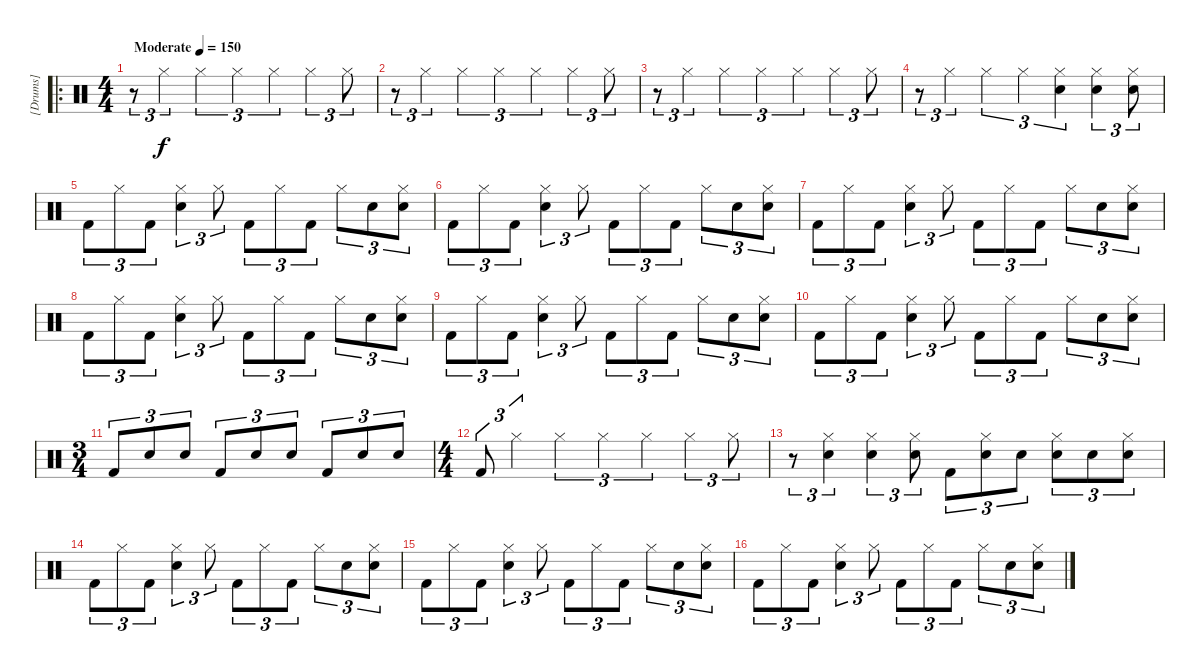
\track ("[Drums]" "[Drums]") {instrument percussion}
\staff {score}
\articulation defaults
\ro
\ts (4 4)
\tempo (150 "Moderate")
\clef neutral
\ks c
r.8{tu (3 2) dy f} "Hi-Hat (closed)".4{tu (3 2)} "Hi-Hat (closed)".4{tu (3 2)} "Hi-Hat (closed)".4{tu (3 2)} "Hi-Hat (closed)".4{tu (3 2)} "Hi-Hat (closed)".4{tu (3 2)} "Hi-Hat (closed)".8{tu (3 2)} |
r.8{tu (3 2)} "Hi-Hat (closed)".4{tu (3 2)} "Hi-Hat (closed)".4{tu (3 2)} "Hi-Hat (closed)".4{tu (3 2)} "Hi-Hat (closed)".4{tu (3 2)} "Hi-Hat (closed)".4{tu (3 2)} "Hi-Hat (closed)".8{tu (3 2)} |
r.8{tu (3 2)} "Hi-Hat (closed)".4{tu (3 2)} "Hi-Hat (closed)".4{tu (3 2)} "Hi-Hat (closed)".4{tu (3 2)} "Hi-Hat (closed)".4{tu (3 2)} "Hi-Hat (closed)".4{tu (3 2)} "Hi-Hat (closed)".8{tu (3 2)} |
r.8{tu (3 2)} "Hi-Hat (closed)".4{tu (3 2)} "Hi-Hat (closed)".4{tu (3 2)} "Hi-Hat (closed)".4{tu (3 2)} ("Hi-Hat (closed)" "Snare (hit) 2").4{tu (3 2)} ("Hi-Hat (closed)" "Snare (hit) 2").4{tu (3 2)} ("Hi-Hat (closed)" "Snare (hit) 2").8{tu (3 2)} |
"Kick (hit) 2".8{tu (3 2)} "Hi-Hat (closed)".8{tu (3 2)} "Kick (hit) 2".8{tu (3 2)} ("Hi-Hat (closed)" "Electric Snare (hit)").4{tu (3 2)} "Hi-Hat (closed)".8{tu (3 2)} "Kick (hit) 2".8{tu (3 2)} "Hi-Hat (closed)".8{tu (3 2)} "Kick (hit) 2".8{tu (3 2)} "Hi-Hat (closed)".8{tu (3 2)} "Electric Snare (hit)".8{tu (3 2)} ("Hi-Hat (closed)" "Electric Snare (hit)").8{tu (3 2)} |
"Kick (hit) 2".8{tu (3 2)} "Hi-Hat (closed)".8{tu (3 2)} "Kick (hit) 2".8{tu (3 2)} ("Hi-Hat (closed)" "Electric Snare (hit)").4{tu (3 2)} "Hi-Hat (closed)".8{tu (3 2)} "Kick (hit) 2".8{tu (3 2)} "Hi-Hat (closed)".8{tu (3 2)} "Kick (hit) 2".8{tu (3 2)} "Hi-Hat (closed)".8{tu (3 2)} "Electric Snare (hit)".8{tu (3 2)} ("Hi-Hat (closed)" "Electric Snare (hit)").8{tu (3 2)} |
"Kick (hit) 2".8{tu (3 2)} "Hi-Hat (closed)".8{tu (3 2)} "Kick (hit) 2".8{tu (3 2)} ("Hi-Hat (closed)" "Electric Snare (hit)").4{tu (3 2)} "Hi-Hat (closed)".8{tu (3 2)} "Kick (hit) 2".8{tu (3 2)} "Hi-Hat (closed)".8{tu (3 2)} "Kick (hit) 2".8{tu (3 2)} "Hi-Hat (closed)".8{tu (3 2)} "Electric Snare (hit)".8{tu (3 2)} ("Hi-Hat (closed)" "Electric Snare (hit)").8{tu (3 2)} |
"Kick (hit) 2".8{tu (3 2)} "Hi-Hat (closed)".8{tu (3 2)} "Kick (hit) 2".8{tu (3 2)} ("Hi-Hat (closed)" "Electric Snare (hit)").4{tu (3 2)} "Hi-Hat (closed)".8{tu (3 2)} "Kick (hit) 2".8{tu (3 2)} "Hi-Hat (closed)".8{tu (3 2)} "Kick (hit) 2".8{tu (3 2)} "Hi-Hat (closed)".8{tu (3 2)} "Electric Snare (hit)".8{tu (3 2)} ("Hi-Hat (closed)" "Electric Snare (hit)").8{tu (3 2)} |
"Kick (hit) 2".8{tu (3 2)} "Hi-Hat (closed)".8{tu (3 2)} "Kick (hit) 2".8{tu (3 2)} ("Hi-Hat (closed)" "Electric Snare (hit)").4{tu (3 2)} "Hi-Hat (closed)".8{tu (3 2)} "Kick (hit) 2".8{tu (3 2)} "Hi-Hat (closed)".8{tu (3 2)} "Kick (hit) 2".8{tu (3 2)} "Hi-Hat (closed)".8{tu (3 2)} "Electric Snare (hit)".8{tu (3 2)} ("Hi-Hat (closed)" "Electric Snare (hit)").8{tu (3 2)} |
"Kick (hit) 2".8{tu (3 2)} "Hi-Hat (closed)".8{tu (3 2)} "Kick (hit) 2".8{tu (3 2)} ("Hi-Hat (closed)" "Electric Snare (hit)").4{tu (3 2)} "Hi-Hat (closed)".8{tu (3 2)} "Kick (hit) 2".8{tu (3 2)} "Hi-Hat (closed)".8{tu (3 2)} "Kick (hit) 2".8{tu (3 2)} "Hi-Hat (closed)".8{tu (3 2)} "Electric Snare (hit)".8{tu (3 2)} ("Hi-Hat (closed)" "Electric Snare (hit)").8{tu (3 2)} |
\ts (3 4)
"Kick (hit) 2".8{tu (3 2)} "Electric Snare (hit)".8{tu (3 2)} "Electric Snare (hit)".8{tu (3 2)} "Kick (hit) 2".8{tu (3 2)} "Electric Snare (hit)".8{tu (3 2)} "Electric Snare (hit)".8{tu (3 2)} "Kick (hit) 2".8{tu (3 2)} "Electric Snare (hit)".8{tu (3 2)} "Electric Snare (hit)".8{tu (3 2)} |
\ts (4 4)
"Kick (hit) 2".8{tu (3 2)} "Hi-Hat (closed)".4{tu (3 2)} "Hi-Hat (closed)".4{tu (3 2)} "Hi-Hat (closed)".4{tu (3 2)} "Hi-Hat (closed)".4{tu (3 2)} "Hi-Hat (closed)".4{tu (3 2)} "Hi-Hat (closed)".8{tu (3 2)} |
r.8{tu (3 2)} ("Hi-Hat (closed)" "Snare (hit) 2").4{tu (3 2)} ("Hi-Hat (closed)" "Snare (hit) 2").4{tu (3 2)} ("Hi-Hat (closed)" "Snare (hit) 2").8{tu (3 2)} "Kick (hit) 2".8{tu (3 2)} ("Hi-Hat (closed)" "Snare (hit) 2").8{tu (3 2)} "Snare (hit) 2".8{tu (3 2)} ("Hi-Hat (closed)" "Snare (hit) 2").8{tu (3 2)} "Snare (hit) 2".8{tu (3 2)} ("Hi-Hat (closed)" "Snare (hit) 2").8{tu (3 2)} |
"Kick (hit) 2".8{tu (3 2)} "Hi-Hat (closed)".8{tu (3 2)} "Kick (hit) 2".8{tu (3 2)} ("Hi-Hat (closed)" "Electric Snare (hit)").4{tu (3 2)} "Hi-Hat (closed)".8{tu (3 2)} "Kick (hit) 2".8{tu (3 2)} "Hi-Hat (closed)".8{tu (3 2)} "Kick (hit) 2".8{tu (3 2)} "Hi-Hat (closed)".8{tu (3 2)} "Electric Snare (hit)".8{tu (3 2)} ("Hi-Hat (closed)" "Electric Snare (hit)").8{tu (3 2)} |
"Kick (hit) 2".8{tu (3 2)} "Hi-Hat (closed)".8{tu (3 2)} "Kick (hit) 2".8{tu (3 2)} ("Hi-Hat (closed)" "Electric Snare (hit)").4{tu (3 2)} "Hi-Hat (closed)".8{tu (3 2)} "Kick (hit) 2".8{tu (3 2)} "Hi-Hat (closed)".8{tu (3 2)} "Kick (hit) 2".8{tu (3 2)} "Hi-Hat (closed)".8{tu (3 2)} "Electric Snare (hit)".8{tu (3 2)} ("Hi-Hat (closed)" "Electric Snare (hit)").8{tu (3 2)} |
"Kick (hit) 2".8{tu (3 2)} "Hi-Hat (closed)".8{tu (3 2)} "Kick (hit) 2".8{tu (3 2)} ("Hi-Hat (closed)" "Electric Snare (hit)").4{tu (3 2)} "Hi-Hat (closed)".8{tu (3 2)} "Kick (hit) 2".8{tu (3 2)} "Hi-Hat (closed)".8{tu (3 2)} "Kick (hit) 2".8{tu (3 2)} "Hi-Hat (closed)".8{tu (3 2)} "Electric Snare (hit)".8{tu (3 2)} ("Hi-Hat (closed)" "Electric Snare (hit)").8{tu (3 2)}
